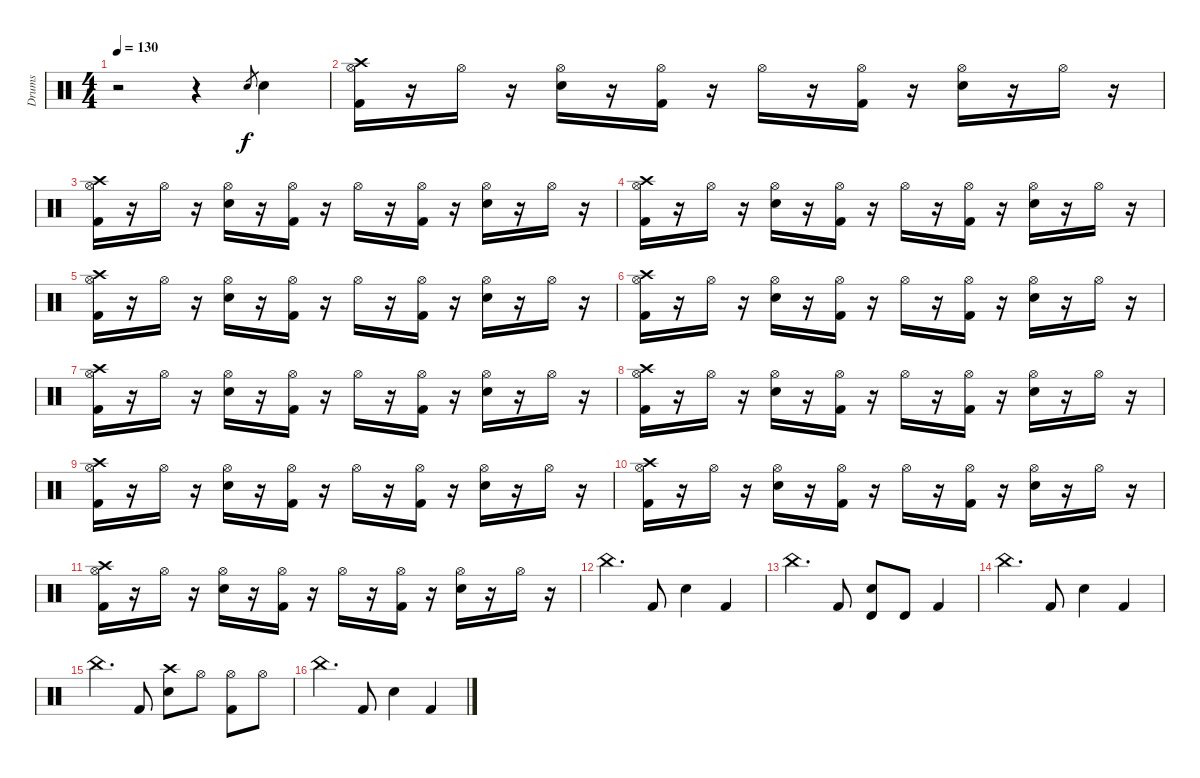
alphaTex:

\track ("Drums" "Drums") {instrument percussion}
\staff {score}
\articulation defaults
\ts (4 4)
\tempo 130
\clef neutral
\ks c
r.2{dy f} r.4 "Snare (hit) 2".8{gr} "Snare (hit) 2".4 |
("Crash high (hit)" "Hi-Hat (open)" "Kick (hit) 2").16 r.16 "Hi-Hat (open)".16 r.16 ("Hi-Hat (open)" "Snare (hit) 2").16 r.16 ("Hi-Hat (open)" "Kick (hit) 2").16 r.16 "Hi-Hat (open)".16 r.16 ("Hi-Hat (open)" "Kick (hit) 2").16 r.16 ("Hi-Hat (open)" "Snare (hit) 2").16 r.16 "Hi-Hat (open)".16 r.16 |
("Crash high (hit)" "Hi-Hat (open)" "Kick (hit) 2").16 r.16 "Hi-Hat (open)".16 r.16 ("Hi-Hat (open)" "Snare (hit) 2").16 r.16 ("Hi-Hat (open)" "Kick (hit) 2").16 r.16 "Hi-Hat (open)".16 r.16 ("Hi-Hat (open)" "Kick (hit) 2").16 r.16 ("Hi-Hat (open)" "Snare (hit) 2").16 r.16 "Hi-Hat (open)".16 r.16 |
("Crash high (hit)" "Hi-Hat (open)" "Kick (hit) 2").16 r.16 "Hi-Hat (open)".16 r.16 ("Hi-Hat (open)" "Snare (hit) 2").16 r.16 ("Hi-Hat (open)" "Kick (hit) 2").16 r.16 "Hi-Hat (open)".16 r.16 ("Hi-Hat (open)" "Kick (hit) 2").16 r.16 ("Hi-Hat (open)" "Snare (hit) 2").16 r.16 "Hi-Hat (open)".16 r.16 |
("Crash high (hit)" "Hi-Hat (open)" "Kick (hit) 2").16 r.16 "Hi-Hat (open)".16 r.16 ("Hi-Hat (open)" "Snare (hit) 2").16 r.16 ("Hi-Hat (open)" "Kick (hit) 2").16 r.16 "Hi-Hat (open)".16 r.16 ("Hi-Hat (open)" "Kick (hit) 2").16 r.16 ("Hi-Hat (open)" "Snare (hit) 2").16 r.16 "Hi-Hat (open)".16 r.16 |
("Crash high (hit)" "Hi-Hat (open)" "Kick (hit) 2").16 r.16 "Hi-Hat (open)".16 r.16 ("Hi-Hat (open)" "Snare (hit) 2").16 r.16 ("Hi-Hat (open)" "Kick (hit) 2").16 r.16 "Hi-Hat (open)".16 r.16 ("Hi-Hat (open)" "Kick (hit) 2").16 r.16 ("Hi-Hat (open)" "Snare (hit) 2").16 r.16 "Hi-Hat (open)".16 r.16 |
("Crash high (hit)" "Hi-Hat (open)" "Kick (hit) 2").16 r.16 "Hi-Hat (open)".16 r.16 ("Hi-Hat (open)" "Snare (hit) 2").16 r.16 ("Hi-Hat (open)" "Kick (hit) 2").16 r.16 "Hi-Hat (open)".16 r.16 ("Hi-Hat (open)" "Kick (hit) 2").16 r.16 ("Hi-Hat (open)" "Snare (hit) 2").16 r.16 "Hi-Hat (open)".16 r.16 |
("Crash high (hit)" "Hi-Hat (open)" "Kick (hit) 2").16 r.16 "Hi-Hat (open)".16 r.16 ("Hi-Hat (open)" "Snare (hit) 2").16 r.16 ("Hi-Hat (open)" "Kick (hit) 2").16 r.16 "Hi-Hat (open)".16 r.16 ("Hi-Hat (open)" "Kick (hit) 2").16 r.16 ("Hi-Hat (open)" "Snare (hit) 2").16 r.16 "Hi-Hat (open)".16 r.16 |
("Crash high (hit)" "Hi-Hat (open)" "Kick (hit) 2").16 r.16 "Hi-Hat (open)".16 r.16 ("Hi-Hat (open)" "Snare (hit) 2").16 r.16 ("Hi-Hat (open)" "Kick (hit) 2").16 r.16 "Hi-Hat (open)".16 r.16 ("Hi-Hat (open)" "Kick (hit) 2").16 r.16 ("Hi-Hat (open)" "Snare (hit) 2").16 r.16 "Hi-Hat (open)".16 r.16 |
("Crash high (hit)" "Hi-Hat (open)" "Kick (hit) 2").16 r.16 "Hi-Hat (open)".16 r.16 ("Hi-Hat (open)" "Snare (hit) 2").16 r.16 ("Hi-Hat (open)" "Kick (hit) 2").16 r.16 "Hi-Hat (open)".16 r.16 ("Hi-Hat (open)" "Kick (hit) 2").16 r.16 ("Hi-Hat (open)" "Snare (hit) 2").16 r.16 "Hi-Hat (open)".16 r.16 |
("Crash high (hit)" "Hi-Hat (open)" "Kick (hit) 2").16 r.16 "Hi-Hat (open)".16 r.16 ("Hi-Hat (open)" "Snare (hit) 2").16 r.16 ("Hi-Hat (open)" "Kick (hit) 2").16 r.16 "Hi-Hat (open)".16 r.16 ("Hi-Hat (open)" "Kick (hit) 2").16 r.16 ("Hi-Hat (open)" "Snare (hit) 2").16 r.16 "Hi-Hat (open)".16 r.16 |
"China (hit)".4{d} "Kick (hit) 2".8 "Snare (hit) 2".4 "Kick (hit) 2".4 |
"China (hit)".4{d} "Kick (hit) 2".8 ("Timbale high (hit)" "Snare (hit) 2").8 "Timbale high (hit)".8 "Kick (hit) 2".4 |
"China (hit)".4{d} "Kick (hit) 2".8 "Snare (hit) 2".4 "Kick (hit) 2".4 |
"China (hit)".4{d} "Kick (hit) 2".8 ("Crash high (hit)" "Snare (hit) 2").8 "Hi-Hat (open)".8 ("Hi-Hat (open)" "Kick (hit) 2").8 "Hi-Hat (open)".8 |
"China (hit)".4{d} "Kick (hit) 2".8 "Snare (hit) 2".4 "Kick (hit) 2".4
